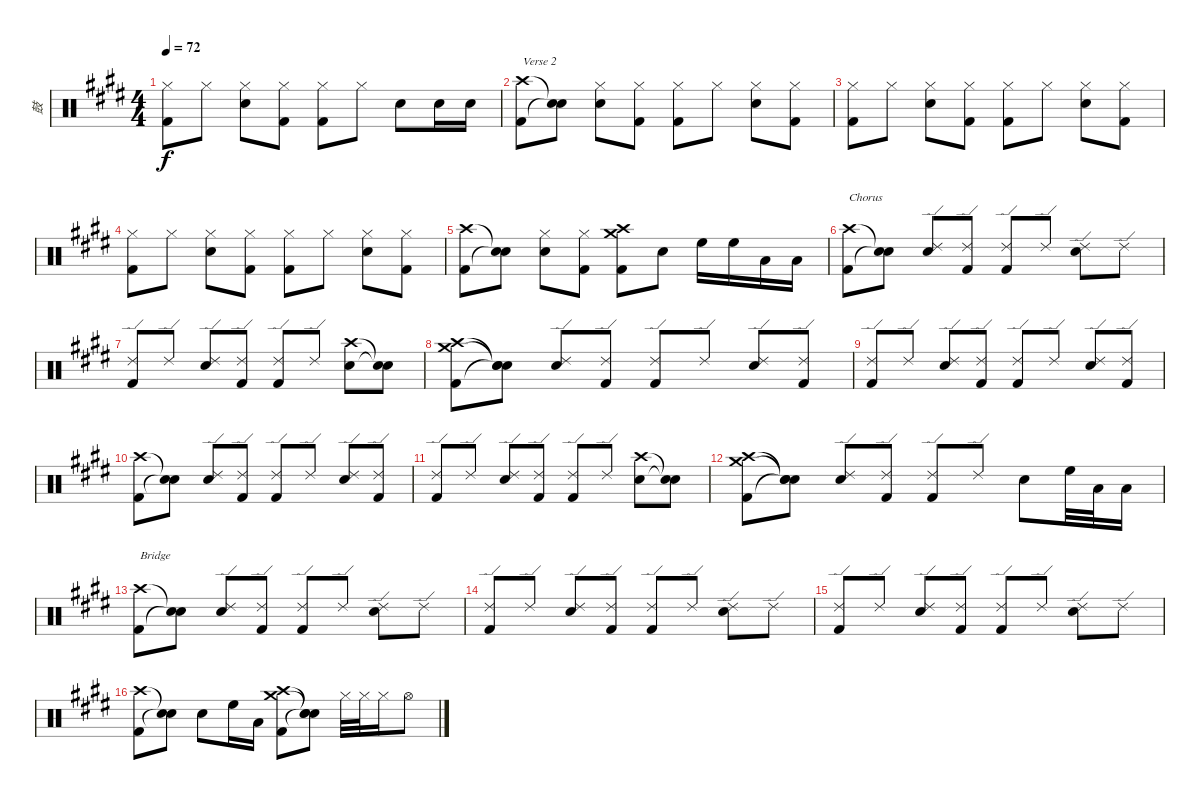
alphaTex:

\track ("鼓" "鼓") {instrument percussion}
\staff {score}
\articulation defaults
\ts (4 4)
\tempo 72
\clef neutral
\ks e
("Hi-Hat (closed)" "Kick (hit) 2").8{dy f} "Hi-Hat (closed)".8 ("Hi-Hat (closed)" "Electric Snare (hit)").8 ("Hi-Hat (closed)" "Kick (hit) 2").8 ("Hi-Hat (closed)" "Kick (hit) 2").8 "Hi-Hat (closed)".8 "Electric Snare (hit)".8 "Electric Snare (hit)".16 "Electric Snare (hit)".16 |
("Crash high (hit)" "Kick (hit) 2").8{txt "Verse 2"} ("Snare (hit)"{t} "Snare (hit)"{t}).8 ("Hi-Hat (closed)" "Electric Snare (hit)").8 ("Hi-Hat (closed)" "Kick (hit) 2").8 ("Hi-Hat (closed)" "Kick (hit) 2").8 "Hi-Hat (closed)".8 ("Hi-Hat (closed)" "Electric Snare (hit)").8 ("Hi-Hat (closed)" "Kick (hit) 2").8 |
("Hi-Hat (closed)" "Kick (hit) 2").8 "Hi-Hat (closed)".8 ("Hi-Hat (closed)" "Electric Snare (hit)").8 ("Hi-Hat (closed)" "Kick (hit) 2").8 ("Hi-Hat (closed)" "Kick (hit) 2").8 "Hi-Hat (closed)".8 ("Hi-Hat (closed)" "Electric Snare (hit)").8 ("Hi-Hat (closed)" "Kick (hit) 2").8 |
("Hi-Hat (closed)" "Kick (hit) 2").8 "Hi-Hat (closed)".8 ("Hi-Hat (closed)" "Electric Snare (hit)").8 ("Hi-Hat (closed)" "Kick (hit) 2").8 ("Hi-Hat (closed)" "Kick (hit) 2").8 "Hi-Hat (closed)".8 ("Hi-Hat (closed)" "Electric Snare (hit)").8 ("Hi-Hat (closed)" "Kick (hit) 2").8 |
("Crash high (hit)" "Kick (hit) 2").8 ("Snare (hit)"{t} "Snare (hit)"{t}).8 ("Hi-Hat (closed)" "Electric Snare (hit)").8 ("Hi-Hat (closed)" "Kick (hit) 2").8 ("Crash high (hit)" "Crash medium (hit)" "Kick (hit) 2").8 "Electric Snare (hit)".8 "High Floor Tom (hit)".16 "High Floor Tom (hit)".16 "Low Tom (hit)".16 "Low Tom (hit)".16 |
("Crash high (hit)" "Kick (hit) 2").8{txt "Chorus"} ("Snare (hit)"{t} "Snare (hit)"{t}).8 ("Ride (edge) 2" "Electric Snare (hit)").8 ("Ride (edge) 2" "Kick (hit) 2").8 ("Ride (edge) 2" "Kick (hit) 2").8 "Ride (edge) 2".8 ("Ride (edge) 2" "Electric Snare (hit)").8 "Ride (edge) 2".8 |
("Ride (edge) 2" "Kick (hit) 2").8 "Ride (edge) 2".8 ("Ride (edge) 2" "Electric Snare (hit)").8 ("Ride (edge) 2" "Kick (hit) 2").8 ("Ride (edge) 2" "Kick (hit) 2").8 "Ride (edge) 2".8 ("Crash high (hit)" "Electric Snare (hit)").8 ("Snare (hit)"{t} "Snare (hit)"{t}).8 |
("Crash high (hit)" "Crash medium (hit)" "Kick (hit) 2").8 ("Snare (hit)"{t} "Snare (hit)"{t} "Snare (hit)"{t}).8 ("Ride (edge) 2" "Electric Snare (hit)").8 ("Ride (edge) 2" "Kick (hit) 2").8 ("Ride (edge) 2" "Kick (hit) 2").8 "Ride (edge) 2".8 ("Ride (edge) 2" "Electric Snare (hit)").8 ("Ride (edge) 2" "Kick (hit) 2").8 |
("Ride (edge) 2" "Kick (hit) 2").8 "Ride (edge) 2".8 ("Ride (edge) 2" "Electric Snare (hit)").8 ("Ride (edge) 2" "Kick (hit) 2").8 ("Ride (edge) 2" "Kick (hit) 2").8 "Ride (edge) 2".8 ("Ride (edge) 2" "Electric Snare (hit)").8 ("Ride (edge) 2" "Kick (hit) 2").8 |
("Crash high (hit)" "Kick (hit) 2").8 ("Snare (hit)"{t} "Snare (hit)"{t}).8 ("Ride (edge) 2" "Electric Snare (hit)").8 ("Ride (edge) 2" "Kick (hit) 2").8 ("Ride (edge) 2" "Kick (hit) 2").8 "Ride (edge) 2".8 ("Ride (edge) 2" "Electric Snare (hit)").8 ("Ride (edge) 2" "Kick (hit) 2").8 |
("Ride (edge) 2" "Kick (hit) 2").8 "Ride (edge) 2".8 ("Ride (edge) 2" "Electric Snare (hit)").8 ("Ride (edge) 2" "Kick (hit) 2").8 ("Ride (edge) 2" "Kick (hit) 2").8 "Ride (edge) 2".8 ("Crash high (hit)" "Electric Snare (hit)").8 ("Snare (hit)"{t} "Snare (hit)"{t}).8 |
("Crash high (hit)" "Crash medium (hit)" "Kick (hit) 2").8 ("Snare (hit)"{t} "Snare (hit)"{t} "Snare (hit)"{t}).8 ("Ride (edge) 2" "Electric Snare (hit)").8 ("Ride (edge) 2" "Kick (hit) 2").8 ("Ride (edge) 2" "Kick (hit) 2").8 "Ride (edge) 2".8 "Electric Snare (hit)".8 "High Floor Tom (hit)".32 "Low Tom (hit)".32 "Low Tom (hit)".16 |
("Crash high (hit)" "Kick (hit) 2").8{txt "Bridge"} ("Snare (hit)"{t} "Snare (hit)"{t}).8 ("Ride (edge) 2" "Electric Snare (hit)").8 ("Ride (edge) 2" "Kick (hit) 2").8 ("Ride (edge) 2" "Kick (hit) 2").8 "Ride (edge) 2".8 ("Ride (edge) 2" "Electric Snare (hit)").8 "Ride (edge) 2".8 |
("Ride (edge) 2" "Kick (hit) 2").8 "Ride (edge) 2".8 ("Ride (edge) 2" "Electric Snare (hit)").8 ("Ride (edge) 2" "Kick (hit) 2").8 ("Ride (edge) 2" "Kick (hit) 2").8 "Ride (edge) 2".8 ("Ride (edge) 2" "Electric Snare (hit)").8 "Ride (edge) 2".8 |
("Ride (edge) 2" "Kick (hit) 2").8 "Ride (edge) 2".8 ("Ride (edge) 2" "Electric Snare (hit)").8 ("Ride (edge) 2" "Kick (hit) 2").8 ("Ride (edge) 2" "Kick (hit) 2").8 "Ride (edge) 2".8 ("Ride (edge) 2" "Electric Snare (hit)").8 "Ride (edge) 2".8 |
("Crash high (hit)" "Kick (hit) 2").8 ("Snare (hit)"{t} "Snare (hit)"{t}).8 "Electric Snare (hit)".8 "High Floor Tom (hit)".16 "Low Tom (hit)".16 ("Crash high (hit)" "Crash medium (hit)" "Kick (hit) 2").8 ("Snare (hit)"{t} "Snare (hit)"{t} "Snare (hit)"{t}).8 "Hi-Hat (closed)".32 "Hi-Hat (closed)".32 "Hi-Hat (closed)".16 "Hi-Hat (open)".8
